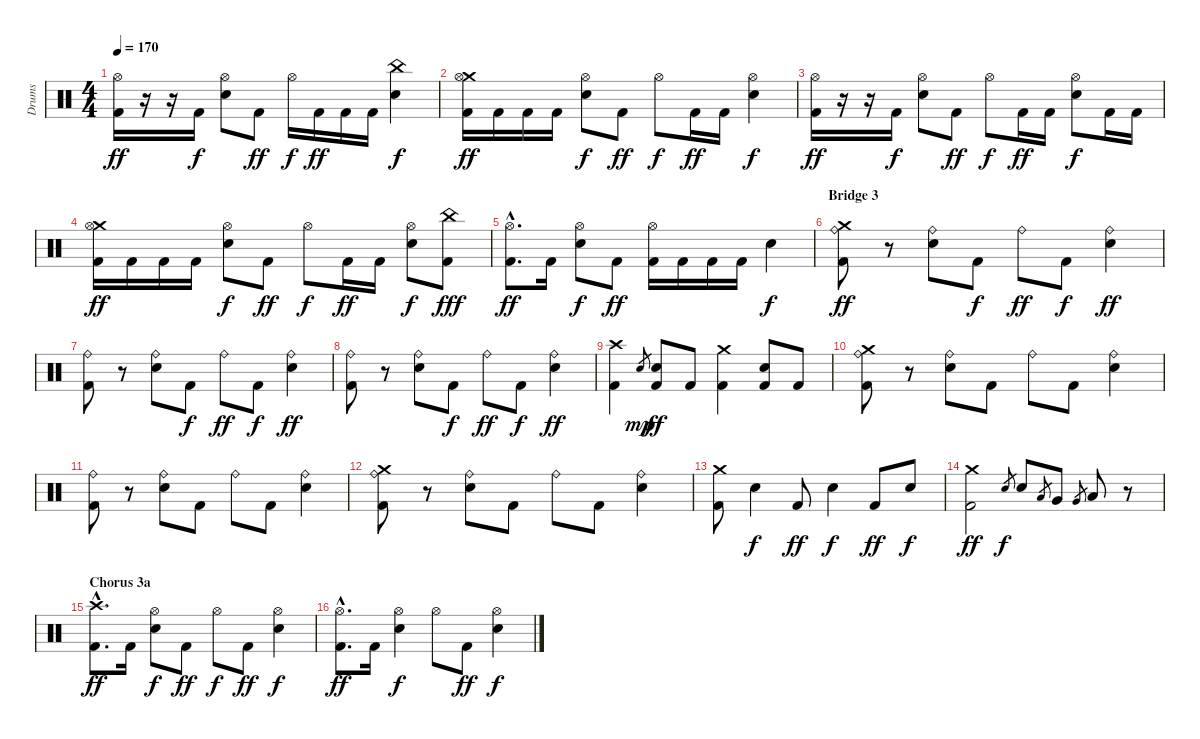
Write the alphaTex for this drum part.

\track ("Drums" "Drums") {instrument percussion}
\staff {score}
\articulation defaults
\ts (4 4)
\tempo 170
\clef neutral
\ks c
("Hi-Hat (open)" "Kick (hit) 2").16{dy ff} r.16 r.16 "Kick (hit) 2".16{dy f} ("Hi-Hat (open)" "Snare (hit) 2").8 "Kick (hit) 2".8{dy ff} "Hi-Hat (open)".16{dy f} "Kick (hit) 2".16{dy ff} "Kick (hit) 2".16 "Kick (hit) 2".16 ("China (hit)" "Snare (hit) 2").4{dy f} |
("Crash medium (hit)" "Hi-Hat (open)" "Kick (hit) 2").16{dy ff} "Kick (hit) 2".16 "Kick (hit) 2".16 "Kick (hit) 2".16 ("Hi-Hat (open)" "Snare (hit) 2").8{dy f} "Kick (hit) 2".8{dy ff} "Hi-Hat (open)".8{dy f} "Kick (hit) 2".16{dy ff} "Kick (hit) 2".16 ("Hi-Hat (open)" "Snare (hit) 2").4{dy f} |
("Hi-Hat (open)" "Kick (hit) 2").16{dy ff} r.16 r.16 "Kick (hit) 2".16{dy f} ("Hi-Hat (open)" "Snare (hit) 2").8 "Kick (hit) 2".8{dy ff} "Hi-Hat (open)".8{dy f} "Kick (hit) 2".16{dy ff} "Kick (hit) 2".16 ("Hi-Hat (open)" "Snare (hit) 2").8{dy f} "Kick (hit) 2".16 "Kick (hit) 2".16 |
("Crash medium (hit)" "Hi-Hat (open)" "Kick (hit) 2").16{dy ff} "Kick (hit) 2".16 "Kick (hit) 2".16 "Kick (hit) 2".16 ("Hi-Hat (open)" "Snare (hit) 2").8{dy f} "Kick (hit) 2".8{dy ff} "Hi-Hat (open)".8{dy f} "Kick (hit) 2".16{dy ff} "Kick (hit) 2".16 ("Hi-Hat (open)" "Snare (hit) 2").8{dy f} ("China (hit)" "Kick (hit) 2").8{dy fff} |
("Hi-Hat (open)"{hac} "Kick (hit) 2"{hac}).8{d dy ff} "Kick (hit) 2".16 ("Hi-Hat (open)" "Snare (hit) 2").8{dy f} "Kick (hit) 2".8{dy ff} ("Hi-Hat (open)" "Kick (hit) 2").16 "Kick (hit) 2".16 "Kick (hit) 2".16 "Kick (hit) 2".16 "Snare (hit) 2".4{dy f} |
\section ("" "Bridge 3")
("Crash medium (hit)" "Ride (bell)" "Kick (hit) 2").8{dy ff} r.8 ("Ride (bell)" "Snare (hit) 2").8 "Kick (hit) 2".8{dy f} "Ride (bell)".8{dy ff} "Kick (hit) 2".8{dy f} ("Ride (bell)" "Snare (hit) 2").4{dy ff} |
("Ride (bell)" "Kick (hit) 2").8 r.8 ("Ride (bell)" "Snare (hit) 2").8 "Kick (hit) 2".8{dy f} "Ride (bell)".8{dy ff} "Kick (hit) 2".8{dy f} ("Ride (bell)" "Snare (hit) 2").4{dy ff} |
("Ride (bell)" "Kick (hit) 2").8 r.8 ("Ride (bell)" "Snare (hit) 2").8 "Kick (hit) 2".8{dy f} "Ride (bell)".8{dy ff} "Kick (hit) 2".8{dy f} ("Ride (bell)" "Snare (hit) 2").4{dy ff} |
("Crash high (hit)" "Kick (hit) 2").4 "Snare (hit) 2".8{gr dy mp} ("Snare (hit) 2" "Kick (hit) 2").8{dy ff} "Kick (hit) 2".8 ("Crash medium (hit)" "Kick (hit) 2").4 ("Snare (hit) 2" "Kick (hit) 2").8 "Kick (hit) 2".8 |
("Crash medium (hit)" "Ride (bell)" "Kick (hit) 2").8 r.8 ("Ride (bell)" "Snare (hit) 2").8 "Kick (hit) 2".8 "Ride (bell)".8 "Kick (hit) 2".8 ("Ride (bell)" "Snare (hit) 2").4 |
("Ride (bell)" "Kick (hit) 2").8 r.8 ("Ride (bell)" "Snare (hit) 2").8 "Kick (hit) 2".8 "Ride (bell)".8 "Kick (hit) 2".8 ("Ride (bell)" "Snare (hit) 2").4 |
("Crash medium (hit)" "Ride (bell)" "Kick (hit) 2").8 r.8 ("Ride (bell)" "Snare (hit) 2").8 "Kick (hit) 2".8 "Ride (bell)".8 "Kick (hit) 2".8 ("Ride (bell)" "Snare (hit) 2").4 |
("Crash medium (hit)" "Kick (hit) 2").8 "Snare (hit) 2".4{dy f} "Kick (hit) 2".8{dy ff} "Snare (hit) 2".4{dy f} "Kick (hit) 2".8{dy ff} "Snare (hit) 2".8{dy f} |
("Crash medium (hit)" "Kick (hit) 2").2{dy ff} "Snare (hit) 2".8{gr dy f} "Snare (hit) 2".8 "Low Tom (hit)".8{gr} "Very Low Tom (hit)".8 "Very Low Tom (hit)".8{gr} "Low Floor Tom (hit)".8 r.8 |
\section ("" "Chorus 3a")
("Crash high (hit)"{hac} "Kick (hit) 2"{hac}).8{d dy ff} "Kick (hit) 2".16 ("Hi-Hat (open)" "Snare (hit) 2").8{dy f} "Kick (hit) 2".8{dy ff} "Hi-Hat (open)".8{dy f} "Kick (hit) 2".8{dy ff} ("Hi-Hat (open)" "Snare (hit) 2").4{dy f} |
("Hi-Hat (open)"{hac} "Kick (hit) 2"{hac}).8{d dy ff} "Kick (hit) 2".16 ("Hi-Hat (open)" "Snare (hit) 2").4{dy f} "Hi-Hat (open)".8 "Kick (hit) 2".8{dy ff} ("Hi-Hat (open)" "Snare (hit) 2").4{dy f}
